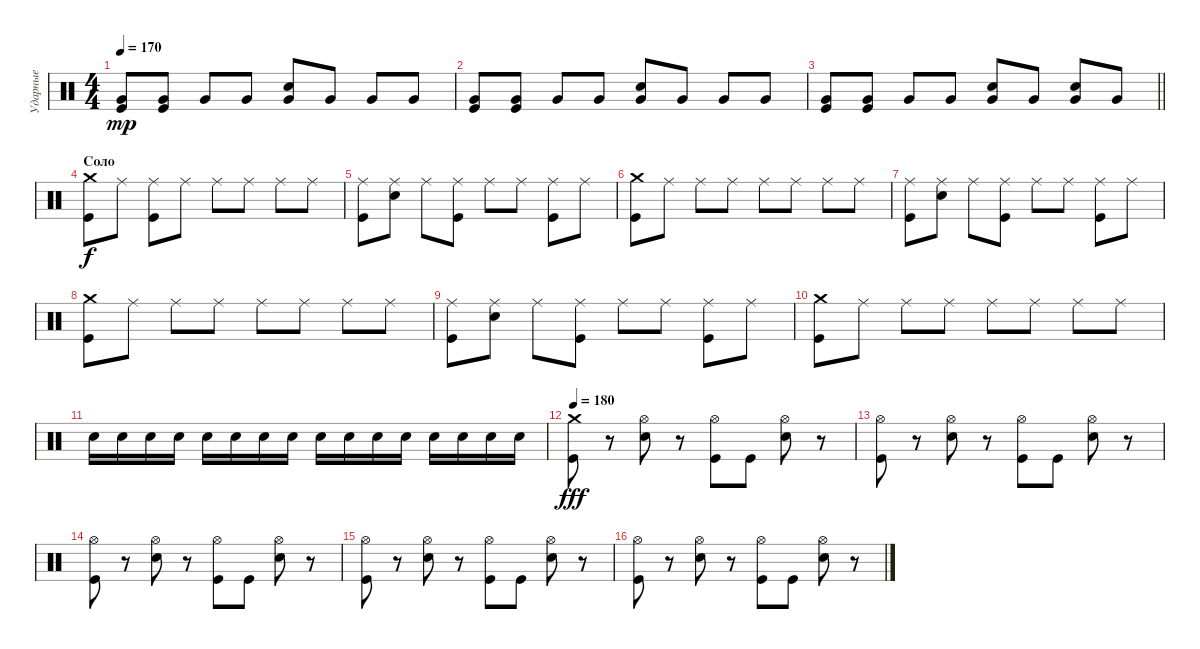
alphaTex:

\track ("Ударные" "Ударные") {instrument percussion}
\staff {score}
\articulation defaults
\ts (4 4)
\tempo 170
\clef neutral
\ks c
("Very Low Tom (hit)" "Kick (hit)").8{dy mp} ("Very Low Tom (hit)" "Kick (hit)").8 "Very Low Tom (hit)".8 "Very Low Tom (hit)".8 ("Very Low Tom (hit)" "Electric Snare (hit)").8 "Very Low Tom (hit)".8 "Very Low Tom (hit)".8 "Very Low Tom (hit)".8 |
("Very Low Tom (hit)" "Kick (hit)").8 ("Very Low Tom (hit)" "Kick (hit)").8 "Very Low Tom (hit)".8 "Very Low Tom (hit)".8 ("Very Low Tom (hit)" "Electric Snare (hit)").8 "Very Low Tom (hit)".8 "Very Low Tom (hit)".8 "Very Low Tom (hit)".8 |
\barLineRight lightlight
("Very Low Tom (hit)" "Kick (hit)").8 ("Very Low Tom (hit)" "Kick (hit)").8 "Very Low Tom (hit)".8 "Very Low Tom (hit)".8 ("Very Low Tom (hit)" "Electric Snare (hit)").8 "Very Low Tom (hit)".8 ("Very Low Tom (hit)" "Electric Snare (hit)").8 "Very Low Tom (hit)".8 |
\section ("" "Соло")
("Crash medium (hit)" "Kick (hit)").8{dy f} "Ride (middle)".8 ("Ride (middle)" "Kick (hit)").8 "Ride (middle)".8 "Ride (middle)".8 "Ride (middle)".8 "Ride (middle)".8 "Ride (middle)".8 |
("Kick (hit)" "Ride (middle)").8 ("Electric Snare (hit)" "Ride (middle)").8 "Ride (middle)".8 ("Kick (hit)" "Ride (middle)").8 "Ride (middle)".8 "Ride (middle)".8 ("Kick (hit)" "Ride (middle)").8 "Ride (middle)".8 |
("Crash medium (hit)" "Kick (hit)").8 "Ride (middle)".8 "Ride (middle)".8 "Ride (middle)".8 "Ride (middle)".8 "Ride (middle)".8 "Ride (middle)".8 "Ride (middle)".8 |
("Kick (hit)" "Ride (middle)").8 ("Electric Snare (hit)" "Ride (middle)").8 "Ride (middle)".8 ("Kick (hit)" "Ride (middle)").8 "Ride (middle)".8 "Ride (middle)".8 ("Kick (hit)" "Ride (middle)").8 "Ride (middle)".8 |
("Crash medium (hit)" "Kick (hit)").8 "Ride (middle)".8 "Ride (middle)".8 "Ride (middle)".8 "Ride (middle)".8 "Ride (middle)".8 "Ride (middle)".8 "Ride (middle)".8 |
("Kick (hit)" "Ride (middle)").8 ("Electric Snare (hit)" "Ride (middle)").8 "Ride (middle)".8 ("Kick (hit)" "Ride (middle)").8 "Ride (middle)".8 "Ride (middle)".8 ("Kick (hit)" "Ride (middle)").8 "Ride (middle)".8 |
("Crash medium (hit)" "Kick (hit)").8 "Ride (middle)".8 "Ride (middle)".8 "Ride (middle)".8 "Ride (middle)".8 "Ride (middle)".8 "Ride (middle)".8 "Ride (middle)".8 |
"Electric Snare (hit)".16 "Electric Snare (hit)".16 "Electric Snare (hit)".16 "Electric Snare (hit)".16 "Electric Snare (hit)".16 "Electric Snare (hit)".16 "Electric Snare (hit)".16 "Electric Snare (hit)".16 "Electric Snare (hit)".16 "Electric Snare (hit)".16 "Electric Snare (hit)".16 "Electric Snare (hit)".16 "Electric Snare (hit)".16 "Electric Snare (hit)".16 "Electric Snare (hit)".16 "Electric Snare (hit)".16 |
\tempo 180
("Crash medium (hit)" "Kick (hit)").8{dy fff} r.8 ("Hi-Hat (open)" "Electric Snare (hit)").8 r.8 ("Hi-Hat (open)" "Kick (hit)").8 "Kick (hit)".8 ("Hi-Hat (open)" "Electric Snare (hit)").8 r.8 |
("Hi-Hat (open)" "Kick (hit)").8 r.8 ("Hi-Hat (open)" "Electric Snare (hit)").8 r.8 ("Hi-Hat (open)" "Kick (hit)").8 "Kick (hit)".8 ("Hi-Hat (open)" "Electric Snare (hit)").8 r.8 |
("Hi-Hat (open)" "Kick (hit)").8 r.8 ("Hi-Hat (open)" "Electric Snare (hit)").8 r.8 ("Hi-Hat (open)" "Kick (hit)").8 "Kick (hit)".8 ("Hi-Hat (open)" "Electric Snare (hit)").8 r.8 |
("Hi-Hat (open)" "Kick (hit)").8 r.8 ("Hi-Hat (open)" "Electric Snare (hit)").8 r.8 ("Hi-Hat (open)" "Kick (hit)").8 "Kick (hit)".8 ("Hi-Hat (open)" "Electric Snare (hit)").8 r.8 |
("Hi-Hat (open)" "Kick (hit)").8 r.8 ("Hi-Hat (open)" "Electric Snare (hit)").8 r.8 ("Hi-Hat (open)" "Kick (hit)").8 "Kick (hit)".8 ("Hi-Hat (open)" "Electric Snare (hit)").8 r.8
